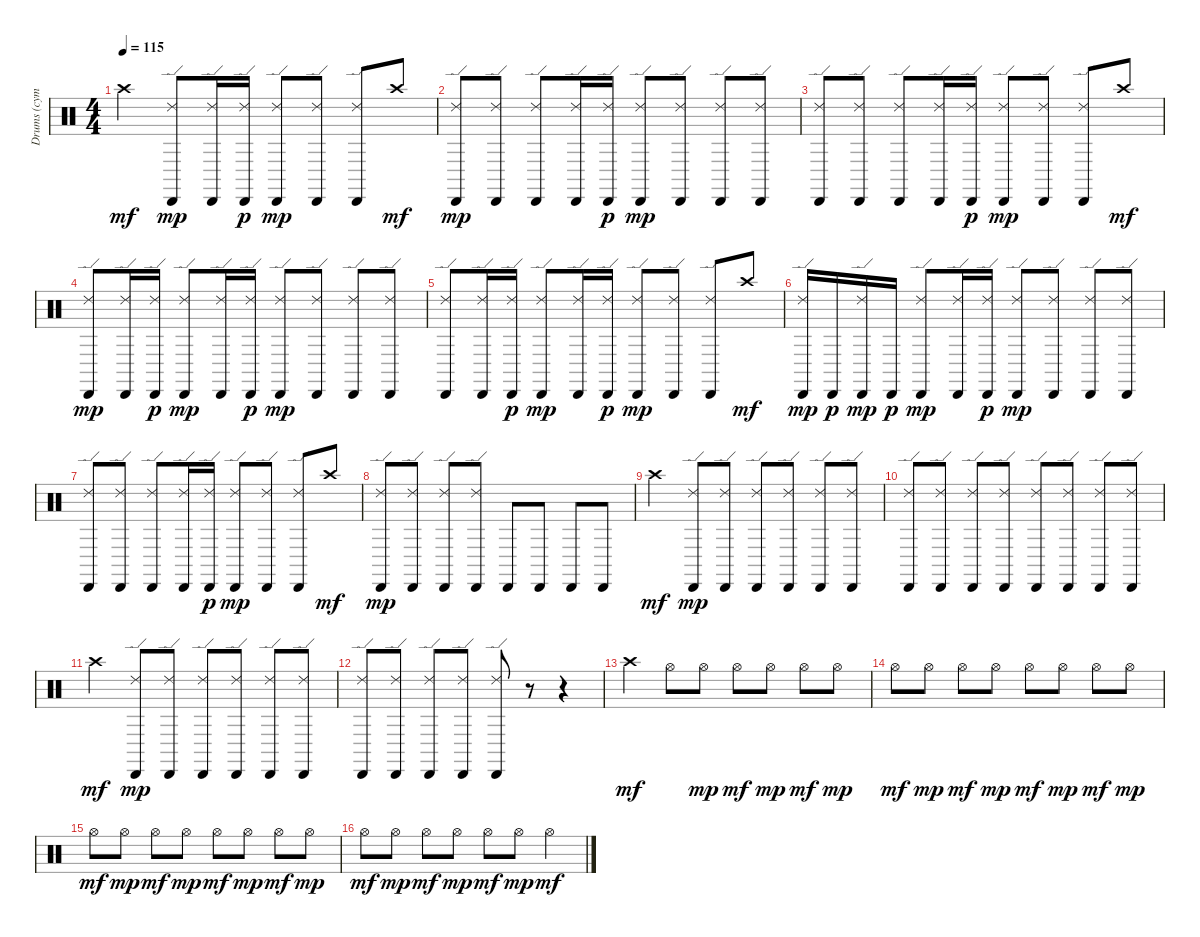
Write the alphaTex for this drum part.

\track ("Drums (cymbals)" "Drums (cym") {instrument percussion}
\staff {score}
\articulation defaults
\ts (4 4)
\tempo 115
\clef neutral
\ks c "Crash high (hit)".4{dy mf}
("Ride (edge) 2" "Cabasa (hit)").8{dy mp} ("Ride (edge) 2" "Cabasa (hit)").16 ("Ride (edge) 2" "Cabasa (hit)").16{dy p} ("Ride (edge) 2" "Cabasa (hit)").8{dy mp} ("Ride (edge) 2" "Cabasa (hit)").8 ("Ride (edge) 2" "Cabasa (hit)").8 "Crash high (hit)".8{dy mf} |
("Ride (edge) 2" "Cabasa (hit)").8{dy mp} ("Ride (edge) 2" "Cabasa (hit)").8 ("Ride (edge) 2" "Cabasa (hit)").8 ("Ride (edge) 2" "Cabasa (hit)").16 ("Ride (edge) 2" "Cabasa (hit)").16{dy p} ("Ride (edge) 2" "Cabasa (hit)").8{dy mp} ("Ride (edge) 2" "Cabasa (hit)").8 ("Ride (edge) 2" "Cabasa (hit)").8 ("Ride (edge) 2" "Cabasa (hit)").8 |
("Ride (edge) 2" "Cabasa (hit)").8 ("Ride (edge) 2" "Cabasa (hit)").8 ("Ride (edge) 2" "Cabasa (hit)").8 ("Ride (edge) 2" "Cabasa (hit)").16 ("Ride (edge) 2" "Cabasa (hit)").16{dy p} ("Ride (edge) 2" "Cabasa (hit)").8{dy mp} ("Ride (edge) 2" "Cabasa (hit)").8 ("Ride (edge) 2" "Cabasa (hit)").8 "Crash high (hit)".8{dy mf} |
("Ride (edge) 2" "Cabasa (hit)").8{dy mp} ("Ride (edge) 2" "Cabasa (hit)").16 ("Ride (edge) 2" "Cabasa (hit)").16{dy p} ("Ride (edge) 2" "Cabasa (hit)").8{dy mp} ("Ride (edge) 2" "Cabasa (hit)").16 ("Ride (edge) 2" "Cabasa (hit)").16{dy p} ("Ride (edge) 2" "Cabasa (hit)").8{dy mp} ("Ride (edge) 2" "Cabasa (hit)").8 ("Ride (edge) 2" "Cabasa (hit)").8 ("Ride (edge) 2" "Cabasa (hit)").8 |
("Ride (edge) 2" "Cabasa (hit)").8 ("Ride (edge) 2" "Cabasa (hit)").16 ("Ride (edge) 2" "Cabasa (hit)").16{dy p} ("Ride (edge) 2" "Cabasa (hit)").8{dy mp} ("Ride (edge) 2" "Cabasa (hit)").16 ("Ride (edge) 2" "Cabasa (hit)").16{dy p} ("Ride (edge) 2" "Cabasa (hit)").8{dy mp} ("Ride (edge) 2" "Cabasa (hit)").8 ("Ride (edge) 2" "Cabasa (hit)").8 "Crash high (hit)".8{dy mf} |
("Ride (edge) 2" "Cabasa (hit)").16{dy mp} "Cabasa (hit)".16{dy p} ("Ride (edge) 2" "Cabasa (hit)").16{dy mp} "Cabasa (hit)".16{dy p} ("Ride (edge) 2" "Cabasa (hit)").8{dy mp} ("Ride (edge) 2" "Cabasa (hit)").16 ("Ride (edge) 2" "Cabasa (hit)").16{dy p} ("Ride (edge) 2" "Cabasa (hit)").8{dy mp} ("Ride (edge) 2" "Cabasa (hit)").8 ("Ride (edge) 2" "Cabasa (hit)").8 ("Ride (edge) 2" "Cabasa (hit)").8 |
("Ride (edge) 2" "Cabasa (hit)").8 ("Ride (edge) 2" "Cabasa (hit)").8 ("Ride (edge) 2" "Cabasa (hit)").8 ("Ride (edge) 2" "Cabasa (hit)").16 ("Ride (edge) 2" "Cabasa (hit)").16{dy p} ("Ride (edge) 2" "Cabasa (hit)").8{dy mp} ("Ride (edge) 2" "Cabasa (hit)").8 ("Ride (edge) 2" "Cabasa (hit)").8 "Crash high (hit)".8{dy mf} |
("Ride (edge) 2" "Cabasa (hit)").8{dy mp} ("Ride (edge) 2" "Cabasa (hit)").8 ("Ride (edge) 2" "Cabasa (hit)").8 ("Ride (edge) 2" "Cabasa (hit)").8 "Cabasa (hit)".8 "Cabasa (hit)".8 "Cabasa (hit)".8 "Cabasa (hit)".8 |
"Crash high (hit)".4{dy mf} ("Ride (edge) 2" "Cabasa (hit)").8{dy mp} ("Ride (edge) 2" "Cabasa (hit)").8 ("Ride (edge) 2" "Cabasa (hit)").8 ("Ride (edge) 2" "Cabasa (hit)").8 ("Ride (edge) 2" "Cabasa (hit)").8 ("Ride (edge) 2" "Cabasa (hit)").8 |
("Ride (edge) 2" "Cabasa (hit)").8 ("Ride (edge) 2" "Cabasa (hit)").8 ("Ride (edge) 2" "Cabasa (hit)").8 ("Ride (edge) 2" "Cabasa (hit)").8 ("Ride (edge) 2" "Cabasa (hit)").8 ("Ride (edge) 2" "Cabasa (hit)").8 ("Ride (edge) 2" "Cabasa (hit)").8 ("Ride (edge) 2" "Cabasa (hit)").8 |
"Crash high (hit)".4{dy mf} ("Ride (edge) 2" "Cabasa (hit)").8{dy mp} ("Ride (edge) 2" "Cabasa (hit)").8 ("Ride (edge) 2" "Cabasa (hit)").8 ("Ride (edge) 2" "Cabasa (hit)").8 ("Ride (edge) 2" "Cabasa (hit)").8 ("Ride (edge) 2" "Cabasa (hit)").8 |
("Ride (edge) 2" "Cabasa (hit)").8 ("Ride (edge) 2" "Cabasa (hit)").8 ("Ride (edge) 2" "Cabasa (hit)").8 ("Ride (edge) 2" "Cabasa (hit)").8 ("Ride (edge) 2" "Cabasa (hit)").8 r.8 r.4 |
"Crash high (hit)".4{dy mf} "Hi-Hat (open)".8 "Hi-Hat (open)".8{dy mp} "Hi-Hat (open)".8{dy mf} "Hi-Hat (open)".8{dy mp} "Hi-Hat (open)".8{dy mf} "Hi-Hat (open)".8{dy mp} |
"Hi-Hat (open)".8{dy mf} "Hi-Hat (open)".8{dy mp} "Hi-Hat (open)".8{dy mf} "Hi-Hat (open)".8{dy mp} "Hi-Hat (open)".8{dy mf} "Hi-Hat (open)".8{dy mp} "Hi-Hat (open)".8{dy mf} "Hi-Hat (open)".8{dy mp} |
"Hi-Hat (open)".8{dy mf} "Hi-Hat (open)".8{dy mp} "Hi-Hat (open)".8{dy mf} "Hi-Hat (open)".8{dy mp} "Hi-Hat (open)".8{dy mf} "Hi-Hat (open)".8{dy mp} "Hi-Hat (open)".8{dy mf} "Hi-Hat (open)".8{dy mp} |
"Hi-Hat (open)".8{dy mf} "Hi-Hat (open)".8{dy mp} "Hi-Hat (open)".8{dy mf} "Hi-Hat (open)".8{dy mp} "Hi-Hat (open)".8{dy mf} "Hi-Hat (open)".8{dy mp} "Hi-Hat (open)".4{dy mf}
